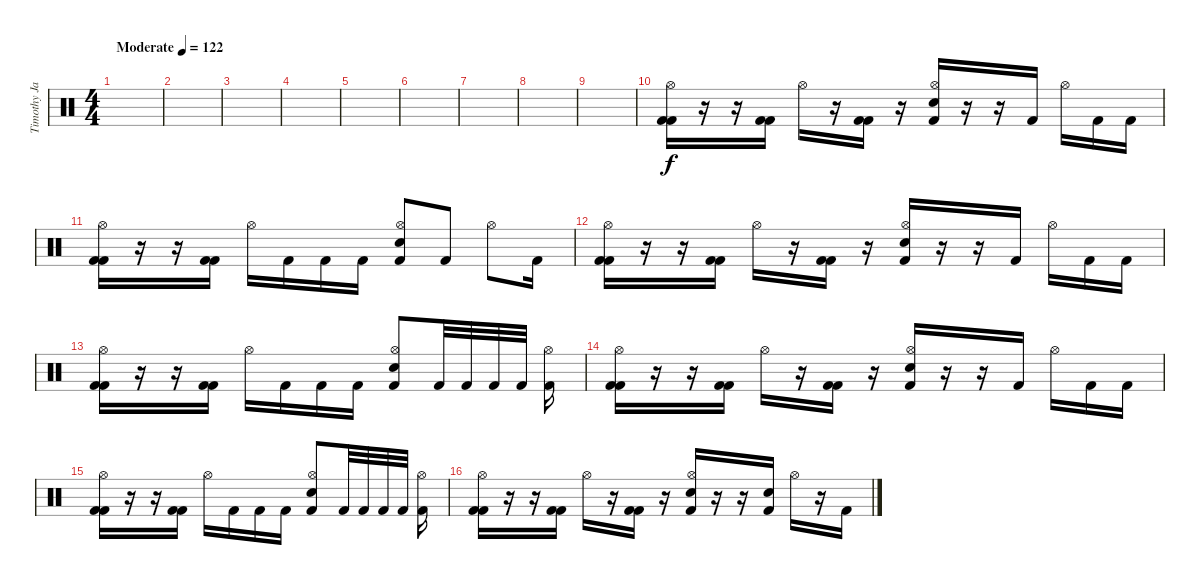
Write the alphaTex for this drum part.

\track ("Timothy Java" "Timothy Ja") {instrument percussion}
\staff {score}
\articulation defaults
\ts (4 4)
\tempo (122 "Moderate")
\clef neutral
\ks c
|
|
|
|
|
|
|
|
|
("Kick (hit) 2" "Kick (hit) 2" "Hi-Hat (open)").16 r.16 r.16 ("Kick (hit) 2" "Kick (hit) 2").16 "Hi-Hat (open)".16 r.16 ("Kick (hit) 2" "Kick (hit) 2").16 r.16 ("Kick (hit) 2" "Electric Snare (hit)" "Hi-Hat (open)").16 r.16 r.16 "Kick (hit) 2".16 "Hi-Hat (open)".16 "Kick (hit) 2".16 "Kick (hit) 2".16 |
("Kick (hit) 2" "Kick (hit) 2" "Hi-Hat (open)").16 r.16 r.16 ("Kick (hit) 2" "Kick (hit) 2").16 "Hi-Hat (open)".16 "Kick (hit) 2".16 "Kick (hit) 2".16 "Kick (hit) 2".16 ("Kick (hit) 2" "Electric Snare (hit)" "Hi-Hat (open)").8 "Kick (hit) 2".8 "Hi-Hat (open)".8 "Kick (hit) 2".16 |
("Kick (hit) 2" "Kick (hit) 2" "Hi-Hat (open)").16 r.16 r.16 ("Kick (hit) 2" "Kick (hit) 2").16 "Hi-Hat (open)".16 r.16 ("Kick (hit) 2" "Kick (hit) 2").16 r.16 ("Kick (hit) 2" "Electric Snare (hit)" "Hi-Hat (open)").16 r.16 r.16 "Kick (hit) 2".16 "Hi-Hat (open)".16 "Kick (hit) 2".16 "Kick (hit) 2".16 |
("Kick (hit) 2" "Kick (hit) 2" "Hi-Hat (open)").16 r.16 r.16 ("Kick (hit) 2" "Kick (hit) 2").16 "Hi-Hat (open)".16 "Kick (hit) 2".16 "Kick (hit) 2".16 "Kick (hit) 2".16 ("Kick (hit) 2" "Electric Snare (hit)" "Hi-Hat (open)").8 "Kick (hit) 2".32 "Kick (hit) 2".32 "Kick (hit) 2".32 "Kick (hit) 2".32 ("Kick (hit) 2" "Hi-Hat (open)").16 |
("Kick (hit) 2" "Kick (hit) 2" "Hi-Hat (open)").16 r.16 r.16 ("Kick (hit) 2" "Kick (hit) 2").16 "Hi-Hat (open)".16 r.16 ("Kick (hit) 2" "Kick (hit) 2").16 r.16 ("Kick (hit) 2" "Electric Snare (hit)" "Hi-Hat (open)").16 r.16 r.16 "Kick (hit) 2".16 "Hi-Hat (open)".16 "Kick (hit) 2".16 "Kick (hit) 2".16 |
("Kick (hit) 2" "Kick (hit) 2" "Hi-Hat (open)").16 r.16 r.16 ("Kick (hit) 2" "Kick (hit) 2").16 "Hi-Hat (open)".16 "Kick (hit) 2".16 "Kick (hit) 2".16 "Kick (hit) 2".16 ("Kick (hit) 2" "Electric Snare (hit)" "Hi-Hat (open)").8 "Kick (hit) 2".32 "Kick (hit) 2".32 "Kick (hit) 2".32 "Kick (hit) 2".32 ("Kick (hit) 2" "Hi-Hat (open)").16 |
("Kick (hit) 2" "Kick (hit) 2" "Hi-Hat (open)").16 r.16 r.16 ("Kick (hit) 2" "Kick (hit) 2").16 "Hi-Hat (open)".16 r.16 ("Kick (hit) 2" "Kick (hit) 2").16 r.16 ("Kick (hit) 2" "Electric Snare (hit)" "Hi-Hat (open)").16 r.16 r.16 ("Kick (hit) 2" "Electric Snare (hit)").16 "Hi-Hat (open)".16 r.16 "Kick (hit) 2".16
